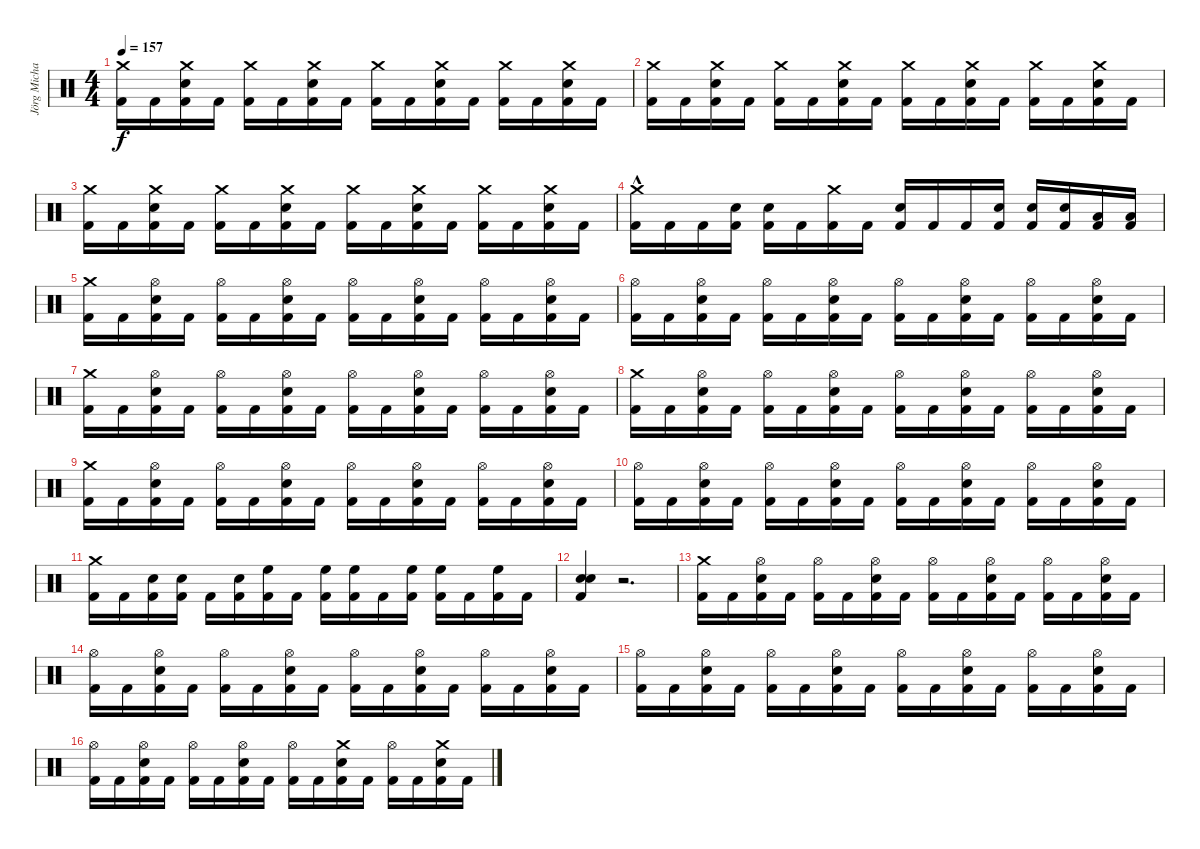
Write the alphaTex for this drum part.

\track ("Jörg Michael" "Jörg Micha") {instrument percussion}
\staff {score}
\articulation defaults
\ts (4 4)
\tempo 157
\clef neutral
\ks c
("Crash medium (hit)" "Kick (hit) 2").16{dy f} "Kick (hit) 2".16 ("Crash medium (hit)" "Snare (hit) 2" "Kick (hit) 2").16 "Kick (hit) 2".16 ("Crash medium (hit)" "Kick (hit) 2").16 "Kick (hit) 2".16 ("Crash medium (hit)" "Snare (hit) 2" "Kick (hit) 2").16 "Kick (hit) 2".16 ("Crash medium (hit)" "Kick (hit) 2").16 "Kick (hit) 2".16 ("Crash medium (hit)" "Snare (hit) 2" "Kick (hit) 2").16 "Kick (hit) 2".16 ("Crash medium (hit)" "Kick (hit) 2").16 "Kick (hit) 2".16 ("Crash medium (hit)" "Snare (hit) 2" "Kick (hit) 2").16 "Kick (hit) 2".16 |
("Crash medium (hit)" "Kick (hit) 2").16 "Kick (hit) 2".16 ("Crash medium (hit)" "Snare (hit) 2" "Kick (hit) 2").16 "Kick (hit) 2".16 ("Crash medium (hit)" "Kick (hit) 2").16 "Kick (hit) 2".16 ("Crash medium (hit)" "Snare (hit) 2" "Kick (hit) 2").16 "Kick (hit) 2".16 ("Crash medium (hit)" "Kick (hit) 2").16 "Kick (hit) 2".16 ("Crash medium (hit)" "Snare (hit) 2" "Kick (hit) 2").16 "Kick (hit) 2".16 ("Crash medium (hit)" "Kick (hit) 2").16 "Kick (hit) 2".16 ("Crash medium (hit)" "Snare (hit) 2" "Kick (hit) 2").16 "Kick (hit) 2".16 |
("Crash medium (hit)" "Kick (hit) 2").16 "Kick (hit) 2".16 ("Crash medium (hit)" "Snare (hit) 2" "Kick (hit) 2").16 "Kick (hit) 2".16 ("Crash medium (hit)" "Kick (hit) 2").16 "Kick (hit) 2".16 ("Crash medium (hit)" "Snare (hit) 2" "Kick (hit) 2").16 "Kick (hit) 2".16 ("Crash medium (hit)" "Kick (hit) 2").16 "Kick (hit) 2".16 ("Crash medium (hit)" "Snare (hit) 2" "Kick (hit) 2").16 "Kick (hit) 2".16 ("Crash medium (hit)" "Kick (hit) 2").16 "Kick (hit) 2".16 ("Crash medium (hit)" "Snare (hit) 2" "Kick (hit) 2").16 "Kick (hit) 2".16 |
("Crash medium (hit)"{hac} "Kick (hit) 2").16 "Kick (hit) 2".16 "Kick (hit) 2".16 ("Snare (hit) 2" "Kick (hit) 2").16 ("Snare (hit) 2" "Kick (hit) 2").16 "Kick (hit) 2".16 ("Crash medium (hit)" "Kick (hit) 2").16 "Kick (hit) 2".16 ("Snare (hit) 2" "Kick (hit) 2").16 "Kick (hit) 2".16 "Kick (hit) 2".16 ("Snare (hit) 2" "Kick (hit) 2").16 ("Snare (hit) 2" "Kick (hit) 2").16 ("Snare (hit) 2" "Kick (hit) 2").16 ("Low Tom (hit)" "Kick (hit) 2").16 ("Low Tom (hit)" "Kick (hit) 2").16 |
("Crash medium (hit)" "Kick (hit) 2").16 "Kick (hit) 2".16 ("Hi-Hat (open)" "Snare (hit) 2" "Kick (hit) 2").16 "Kick (hit) 2".16 ("Hi-Hat (open)" "Kick (hit) 2").16 "Kick (hit) 2".16 ("Hi-Hat (open)" "Snare (hit) 2" "Kick (hit) 2").16 "Kick (hit) 2".16 ("Hi-Hat (open)" "Kick (hit) 2").16 "Kick (hit) 2".16 ("Hi-Hat (open)" "Snare (hit) 2" "Kick (hit) 2").16 "Kick (hit) 2".16 ("Hi-Hat (open)" "Kick (hit) 2").16 "Kick (hit) 2".16 ("Hi-Hat (open)" "Snare (hit) 2" "Kick (hit) 2").16 "Kick (hit) 2".16 |
("Hi-Hat (open)" "Kick (hit) 2").16 "Kick (hit) 2".16 ("Hi-Hat (open)" "Snare (hit) 2" "Kick (hit) 2").16 "Kick (hit) 2".16 ("Hi-Hat (open)" "Kick (hit) 2").16 "Kick (hit) 2".16 ("Hi-Hat (open)" "Snare (hit) 2" "Kick (hit) 2").16 "Kick (hit) 2".16 ("Hi-Hat (open)" "Kick (hit) 2").16 "Kick (hit) 2".16 ("Hi-Hat (open)" "Snare (hit) 2" "Kick (hit) 2").16 "Kick (hit) 2".16 ("Hi-Hat (open)" "Kick (hit) 2").16 "Kick (hit) 2".16 ("Hi-Hat (open)" "Snare (hit) 2" "Kick (hit) 2").16 "Kick (hit) 2".16 |
("Crash medium (hit)" "Kick (hit) 2").16 "Kick (hit) 2".16 ("Hi-Hat (open)" "Snare (hit) 2" "Kick (hit) 2").16 "Kick (hit) 2".16 ("Hi-Hat (open)" "Kick (hit) 2").16 "Kick (hit) 2".16 ("Hi-Hat (open)" "Snare (hit) 2" "Kick (hit) 2").16 "Kick (hit) 2".16 ("Hi-Hat (open)" "Kick (hit) 2").16 "Kick (hit) 2".16 ("Hi-Hat (open)" "Snare (hit) 2" "Kick (hit) 2").16 "Kick (hit) 2".16 ("Hi-Hat (open)" "Kick (hit) 2").16 "Kick (hit) 2".16 ("Hi-Hat (open)" "Snare (hit) 2" "Kick (hit) 2").16 "Kick (hit) 2".16 |
("Crash medium (hit)" "Kick (hit) 2").16 "Kick (hit) 2".16 ("Hi-Hat (open)" "Snare (hit) 2" "Kick (hit) 2").16 "Kick (hit) 2".16 ("Hi-Hat (open)" "Kick (hit) 2").16 "Kick (hit) 2".16 ("Hi-Hat (open)" "Snare (hit) 2" "Kick (hit) 2").16 "Kick (hit) 2".16 ("Hi-Hat (open)" "Kick (hit) 2").16 "Kick (hit) 2".16 ("Hi-Hat (open)" "Snare (hit) 2" "Kick (hit) 2").16 "Kick (hit) 2".16 ("Hi-Hat (open)" "Kick (hit) 2").16 "Kick (hit) 2".16 ("Hi-Hat (open)" "Snare (hit) 2" "Kick (hit) 2").16 "Kick (hit) 2".16 |
("Crash medium (hit)" "Kick (hit) 2").16 "Kick (hit) 2".16 ("Hi-Hat (open)" "Snare (hit) 2" "Kick (hit) 2").16 "Kick (hit) 2".16 ("Hi-Hat (open)" "Kick (hit) 2").16 "Kick (hit) 2".16 ("Hi-Hat (open)" "Snare (hit) 2" "Kick (hit) 2").16 "Kick (hit) 2".16 ("Hi-Hat (open)" "Kick (hit) 2").16 "Kick (hit) 2".16 ("Hi-Hat (open)" "Snare (hit) 2" "Kick (hit) 2").16 "Kick (hit) 2".16 ("Hi-Hat (open)" "Kick (hit) 2").16 "Kick (hit) 2".16 ("Hi-Hat (open)" "Snare (hit) 2" "Kick (hit) 2").16 "Kick (hit) 2".16 |
("Hi-Hat (open)" "Kick (hit) 2").16 "Kick (hit) 2".16 ("Hi-Hat (open)" "Snare (hit) 2" "Kick (hit) 2").16 "Kick (hit) 2".16 ("Hi-Hat (open)" "Kick (hit) 2").16 "Kick (hit) 2".16 ("Hi-Hat (open)" "Snare (hit) 2" "Kick (hit) 2").16 "Kick (hit) 2".16 ("Hi-Hat (open)" "Kick (hit) 2").16 "Kick (hit) 2".16 ("Hi-Hat (open)" "Snare (hit) 2" "Kick (hit) 2").16 "Kick (hit) 2".16 ("Hi-Hat (open)" "Kick (hit) 2").16 "Kick (hit) 2".16 ("Hi-Hat (open)" "Snare (hit) 2" "Kick (hit) 2").16 "Kick (hit) 2".16 |
("Crash medium (hit)" "Kick (hit) 2").16 "Kick (hit) 2".16 ("Snare (hit) 2" "Kick (hit) 2").16 ("Snare (hit) 2" "Kick (hit) 2").16 "Kick (hit) 2".16 ("Snare (hit) 2" "Kick (hit) 2").16 ("High Floor Tom (hit)" "Kick (hit) 2").16 "Kick (hit) 2".16 ("High Floor Tom (hit)" "Kick (hit) 2").16 ("High Floor Tom (hit)" "Kick (hit) 2").16 "Kick (hit) 2".16 ("High Floor Tom (hit)" "Kick (hit) 2").16 ("High Floor Tom (hit)" "Kick (hit) 2").16 "Kick (hit) 2".16 ("High Floor Tom (hit)" "Kick (hit) 2").16 "Kick (hit) 2".16 |
("Snare (hit) 2" "Snare (hit) 2" "Kick (hit) 2").4 r.2{d} |
("Kick (hit) 2" "Crash medium (hit)").16 "Kick (hit) 2".16 ("Kick (hit) 2" "Snare (hit) 2" "Hi-Hat (open)").16 "Kick (hit) 2".16 ("Kick (hit) 2" "Hi-Hat (open)").16 "Kick (hit) 2".16 ("Kick (hit) 2" "Snare (hit) 2" "Hi-Hat (open)").16 "Kick (hit) 2".16 ("Kick (hit) 2" "Hi-Hat (open)").16 "Kick (hit) 2".16 ("Kick (hit) 2" "Snare (hit) 2" "Hi-Hat (open)").16 "Kick (hit) 2".16 ("Kick (hit) 2" "Hi-Hat (open)").16 "Kick (hit) 2".16 ("Kick (hit) 2" "Snare (hit) 2" "Hi-Hat (open)").16 "Kick (hit) 2".16 |
("Hi-Hat (open)" "Kick (hit) 2").16 "Kick (hit) 2".16 ("Kick (hit) 2" "Snare (hit) 2" "Hi-Hat (open)").16 "Kick (hit) 2".16 ("Kick (hit) 2" "Hi-Hat (open)").16 "Kick (hit) 2".16 ("Kick (hit) 2" "Snare (hit) 2" "Hi-Hat (open)").16 "Kick (hit) 2".16 ("Kick (hit) 2" "Hi-Hat (open)").16 "Kick (hit) 2".16 ("Kick (hit) 2" "Snare (hit) 2" "Hi-Hat (open)").16 "Kick (hit) 2".16 ("Kick (hit) 2" "Hi-Hat (open)").16 "Kick (hit) 2".16 ("Kick (hit) 2" "Snare (hit) 2" "Hi-Hat (open)").16 "Kick (hit) 2".16 |
("Hi-Hat (open)" "Kick (hit) 2").16 "Kick (hit) 2".16 ("Kick (hit) 2" "Snare (hit) 2" "Hi-Hat (open)").16 "Kick (hit) 2".16 ("Kick (hit) 2" "Hi-Hat (open)").16 "Kick (hit) 2".16 ("Kick (hit) 2" "Snare (hit) 2" "Hi-Hat (open)").16 "Kick (hit) 2".16 ("Kick (hit) 2" "Hi-Hat (open)").16 "Kick (hit) 2".16 ("Kick (hit) 2" "Snare (hit) 2" "Hi-Hat (open)").16 "Kick (hit) 2".16 ("Kick (hit) 2" "Hi-Hat (open)").16 "Kick (hit) 2".16 ("Kick (hit) 2" "Snare (hit) 2" "Hi-Hat (open)").16 "Kick (hit) 2".16 |
("Hi-Hat (open)" "Kick (hit) 2").16 "Kick (hit) 2".16 ("Kick (hit) 2" "Snare (hit) 2" "Hi-Hat (open)").16 "Kick (hit) 2".16 ("Kick (hit) 2" "Hi-Hat (open)").16 "Kick (hit) 2".16 ("Kick (hit) 2" "Snare (hit) 2" "Hi-Hat (open)").16 "Kick (hit) 2".16 ("Kick (hit) 2" "Hi-Hat (open)").16 "Kick (hit) 2".16 ("Crash medium (hit)" "Kick (hit) 2" "Snare (hit) 2").16 "Kick (hit) 2".16 ("Kick (hit) 2" "Hi-Hat (open)").16 "Kick (hit) 2".16 ("Crash medium (hit)" "Kick (hit) 2" "Snare (hit) 2").16 "Kick (hit) 2".16
